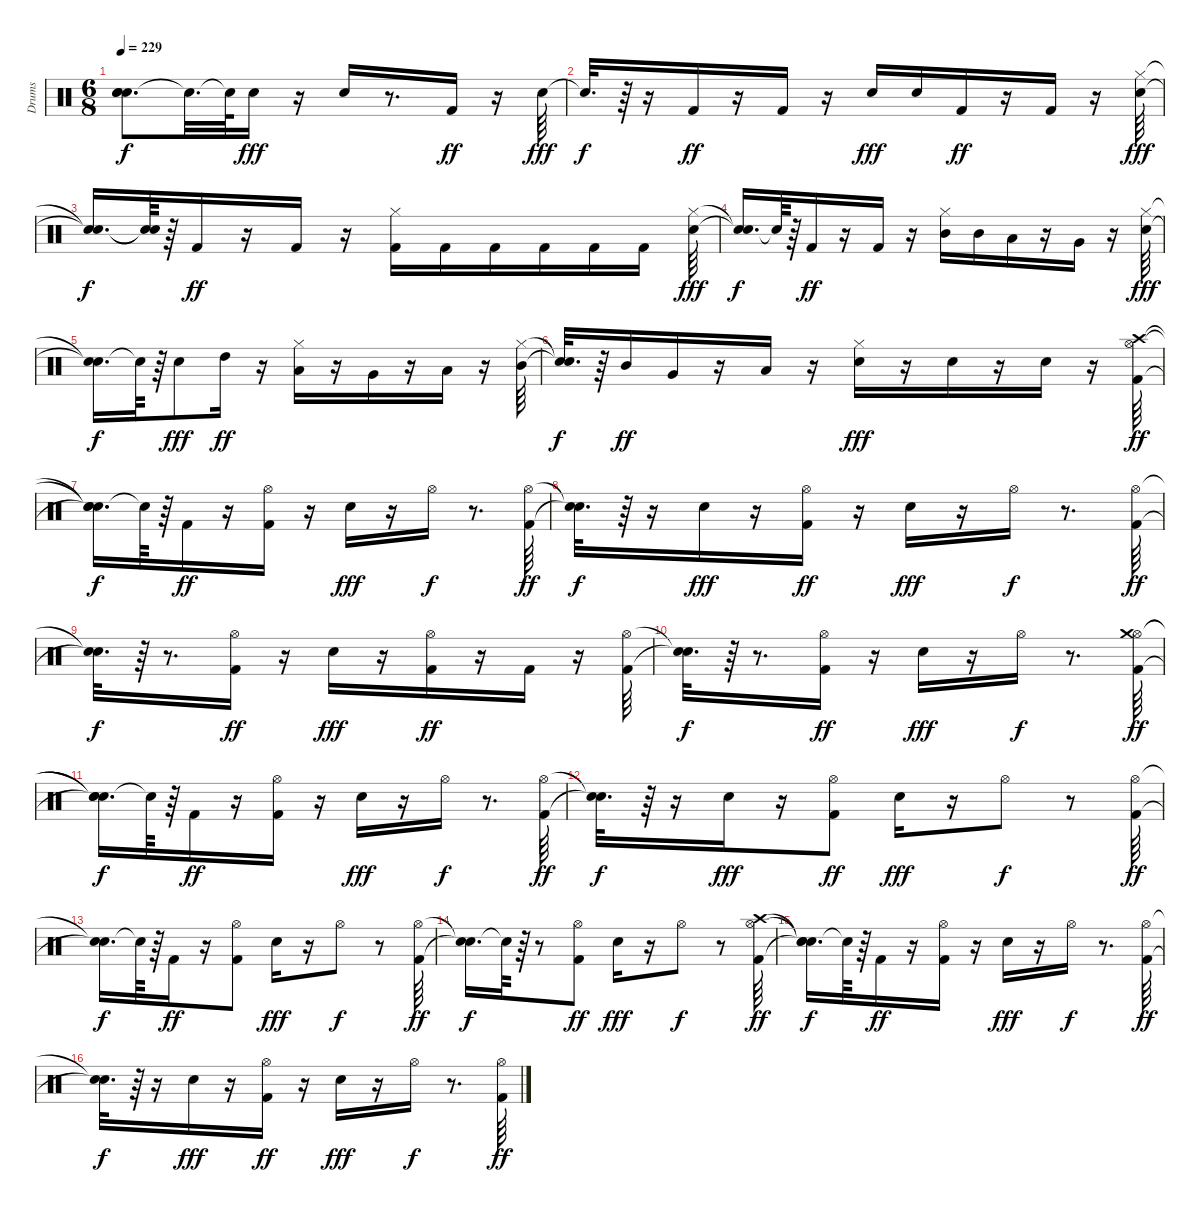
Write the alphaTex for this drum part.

\track ("Drums" "Drums") {instrument percussion}
\staff {score}
\articulation defaults
\ts (6 8)
\tempo 229
\clef neutral
\ks c
("Snare (hit)"{t} "Snare (hit)"{t} "Snare (hit)"{t}).8{d dy f} "Snare (hit)"{t}.32{d} "Snare (hit)"{t}.64 "Snare (hit) 2".16{dy fff} r.16 "Snare (hit) 2".16 r.8{d} "Kick (hit) 2".16{dy ff} r.16 "Snare (hit) 2".64{dy fff} |
"Snare (hit)"{t}.32{d dy f} r.64 r.16 "Kick (hit) 2".16{dy ff} r.16 "Kick (hit) 2".16 r.16 "Snare (hit) 2".16{dy fff} "Snare (hit) 2".16 "Kick (hit) 2".16{dy ff} r.16 "Kick (hit) 2".16 r.16 ("Snare (hit) 2" "Hi-Hat (closed)").64{dy fff} |
("Snare (hit)"{t} "Snare (hit)"{t}).16{d dy f} ("Snare (hit)"{t} "Snare (hit)"{t}).64 r.64 "Kick (hit) 2".16{dy ff} r.16 "Kick (hit) 2".16 r.16 ("Kick (hit) 2" "Hi-Hat (closed)").16 "Kick (hit) 2".16 "Kick (hit) 2".16 "Kick (hit) 2".16 "Kick (hit) 2".16 "Kick (hit) 2".16 ("Snare (hit) 2" "Hi-Hat (closed)").64{dy fff} |
("Snare (hit)"{t} "Snare (hit)"{t}).16{d dy f} "Snare (hit)"{t}.64 r.64 "Kick (hit) 2".16{dy ff} r.16 "Kick (hit) 2".16 r.16 ("Hi-Hat (closed)" "Mid Tom (hit)").16 "Mid Tom (hit)".16 "Low Tom (hit)".16 r.16 "Very Low Tom (hit)".16 r.16 ("Snare (hit) 2" "Hi-Hat (closed)").64{dy fff} |
("Snare (hit)"{t} "Snare (hit)"{t}).16{d dy f} "Snare (hit)"{t}.64 r.64 "Snare (hit) 2".8{dy fff} "High Tom (hit)".16{dy ff} r.16 ("Hi-Hat (closed)" "Low Tom (hit)").16 r.16 "Very Low Tom (hit)".16 r.16 "Low Floor Tom (hit)".16 r.16 ("Hi-Hat (closed)" "Mid Tom (hit)").64 |
("Snare (hit)"{t} "Snare (hit)"{t}).32{d dy f} r.64 "Mid Tom (hit)".16{dy ff} "Very Low Tom (hit)".16 r.16 "Low Floor Tom (hit)".16 r.16 ("Snare (hit) 2" "Hi-Hat (closed)").16{dy fff} r.16 "Snare (hit) 2".16 r.16 "Snare (hit) 2".16 r.16 ("Kick (hit) 2" "Hi-Hat (open)" "Crash high (hit)").64{dy ff} |
("Snare (hit)"{t} "Snare (hit)"{t} "Snare (hit)"{t}).16{d dy f} "Snare (hit)"{t}.64 r.64 "Kick (hit) 2".16{dy ff} r.16 ("Kick (hit) 2" "Hi-Hat (open)").16 r.16 "Snare (hit) 2".16{dy fff} r.16 "Hi-Hat (open)".16{dy f} r.8{d} ("Kick (hit) 2" "Hi-Hat (open)").64{dy ff} |
("Snare (hit)"{t} "Snare (hit)"{t}).32{d dy f} r.64 r.16 "Snare (hit) 2".16{dy fff} r.16 ("Kick (hit) 2" "Hi-Hat (open)").16{dy ff} r.16 "Snare (hit) 2".16{dy fff} r.16 "Hi-Hat (open)".16{dy f} r.8{d} ("Kick (hit) 2" "Hi-Hat (open)").64{dy ff} |
("Snare (hit)"{t} "Snare (hit)"{t}).32{d dy f} r.64 r.8{d} ("Kick (hit) 2" "Hi-Hat (open)").16{dy ff} r.16 "Snare (hit) 2".16{dy fff} r.16 ("Kick (hit) 2" "Hi-Hat (open)").16{dy ff} r.16 "Kick (hit) 2".16 r.16 ("Kick (hit) 2" "Hi-Hat (open)").64 |
("Snare (hit)"{t} "Snare (hit)"{t}).32{d dy f} r.64 r.8{d} ("Kick (hit) 2" "Hi-Hat (open)").16{dy ff} r.16 "Snare (hit) 2".16{dy fff} r.16 "Hi-Hat (open)".16{dy f} r.8{d} ("Kick (hit) 2" "Hi-Hat (open)" "Crash medium (hit)").64{dy ff} |
("Snare (hit)"{t} "Snare (hit)"{t} "Snare (hit)"{t}).16{d dy f} "Snare (hit)"{t}.64 r.64 "Kick (hit) 2".16{dy ff} r.16 ("Kick (hit) 2" "Hi-Hat (open)").16 r.16 "Snare (hit) 2".16{dy fff} r.16 "Hi-Hat (open)".16{dy f} r.8{d} ("Kick (hit) 2" "Hi-Hat (open)").64{dy ff} |
("Snare (hit)"{t} "Snare (hit)"{t}).32{d dy f} r.64 r.16 "Snare (hit) 2".16{dy fff} r.16 ("Kick (hit) 2" "Hi-Hat (open)").8{dy ff} "Snare (hit) 2".16{dy fff} r.16 "Hi-Hat (open)".8{dy f} r.8 ("Kick (hit) 2" "Hi-Hat (open)").64{dy ff} |
("Snare (hit)"{t} "Snare (hit)"{t}).16{d dy f} "Snare (hit)"{t}.64 r.64 "Kick (hit) 2".16{dy ff} r.16 ("Kick (hit) 2" "Hi-Hat (open)").8 "Snare (hit) 2".16{dy fff} r.16 "Hi-Hat (open)".8{dy f} r.8 ("Kick (hit) 2" "Hi-Hat (open)").64{dy ff} |
("Snare (hit)"{t} "Snare (hit)"{t}).16{d dy f} "Snare (hit)"{t}.64 r.64 r.8 ("Kick (hit) 2" "Hi-Hat (open)").8{dy ff} "Snare (hit) 2".16{dy fff} r.16 "Hi-Hat (open)".8{dy f} r.8 ("Kick (hit) 2" "Hi-Hat (open)" "Crash high (hit)").64{dy ff} |
("Snare (hit)"{t} "Snare (hit)"{t} "Snare (hit)"{t}).16{d dy f} "Snare (hit)"{t}.64 r.64 "Kick (hit) 2".16{dy ff} r.16 ("Kick (hit) 2" "Hi-Hat (open)").16 r.16 "Snare (hit) 2".16{dy fff} r.16 "Hi-Hat (open)".16{dy f} r.8{d} ("Kick (hit) 2" "Hi-Hat (open)").64{dy ff} |
("Snare (hit)"{t} "Snare (hit)"{t}).32{d dy f} r.64 r.16 "Snare (hit) 2".16{dy fff} r.16 ("Kick (hit) 2" "Hi-Hat (open)").16{dy ff} r.16 "Snare (hit) 2".16{dy fff} r.16 "Hi-Hat (open)".16{dy f} r.8{d} ("Kick (hit) 2" "Hi-Hat (open)").64{dy ff}
